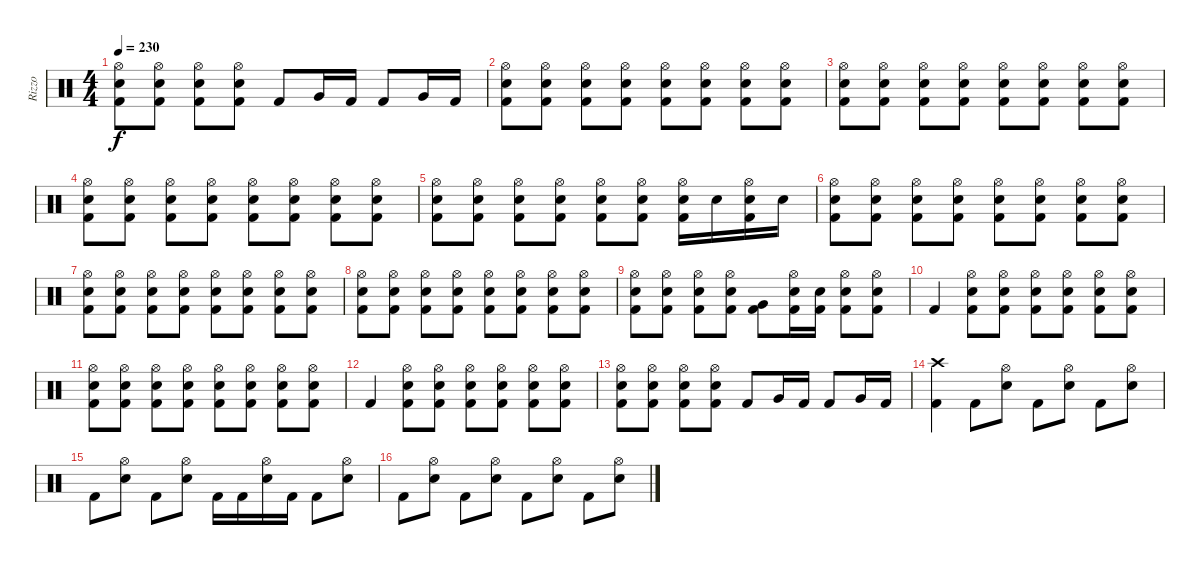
\track ("Rizzo" "Rizzo") {instrument percussion}
\staff {score}
\articulation defaults
\ts (4 4)
\tempo 230
\clef neutral
\ks c
("Hi-Hat (open)" "Snare (hit) 2" "Kick (hit) 2").8{dy f} ("Hi-Hat (open)" "Snare (hit) 2" "Kick (hit) 2").8 ("Hi-Hat (open)" "Snare (hit) 2" "Kick (hit) 2").8 ("Hi-Hat (open)" "Snare (hit) 2" "Kick (hit) 2").8 "Kick (hit) 2".8 "Very Low Tom (hit)".16 "Kick (hit) 2".16 "Kick (hit) 2".8 "Very Low Tom (hit)".16 "Kick (hit) 2".16 |
("Hi-Hat (open)" "Snare (hit) 2" "Kick (hit) 2").8 ("Hi-Hat (open)" "Snare (hit) 2" "Kick (hit) 2").8 ("Hi-Hat (open)" "Snare (hit) 2" "Kick (hit) 2").8 ("Hi-Hat (open)" "Snare (hit) 2" "Kick (hit) 2").8 ("Hi-Hat (open)" "Snare (hit) 2" "Kick (hit) 2").8 ("Hi-Hat (open)" "Snare (hit) 2" "Kick (hit) 2").8 ("Hi-Hat (open)" "Snare (hit) 2" "Kick (hit) 2").8 ("Hi-Hat (open)" "Snare (hit) 2" "Kick (hit) 2").8 |
("Hi-Hat (open)" "Snare (hit) 2" "Kick (hit) 2").8 ("Hi-Hat (open)" "Snare (hit) 2" "Kick (hit) 2").8 ("Hi-Hat (open)" "Snare (hit) 2" "Kick (hit) 2").8 ("Hi-Hat (open)" "Snare (hit) 2" "Kick (hit) 2").8 ("Hi-Hat (open)" "Snare (hit) 2" "Kick (hit) 2").8 ("Hi-Hat (open)" "Snare (hit) 2" "Kick (hit) 2").8 ("Hi-Hat (open)" "Snare (hit) 2" "Kick (hit) 2").8 ("Hi-Hat (open)" "Snare (hit) 2" "Kick (hit) 2").8 |
("Hi-Hat (open)" "Snare (hit) 2" "Kick (hit) 2").8 ("Hi-Hat (open)" "Snare (hit) 2" "Kick (hit) 2").8 ("Hi-Hat (open)" "Snare (hit) 2" "Kick (hit) 2").8 ("Hi-Hat (open)" "Snare (hit) 2" "Kick (hit) 2").8 ("Hi-Hat (open)" "Snare (hit) 2" "Kick (hit) 2").8 ("Hi-Hat (open)" "Snare (hit) 2" "Kick (hit) 2").8 ("Hi-Hat (open)" "Snare (hit) 2" "Kick (hit) 2").8 ("Hi-Hat (open)" "Snare (hit) 2" "Kick (hit) 2").8 |
("Hi-Hat (open)" "Snare (hit) 2" "Kick (hit) 2").8 ("Hi-Hat (open)" "Snare (hit) 2" "Kick (hit) 2").8 ("Hi-Hat (open)" "Snare (hit) 2" "Kick (hit) 2").8 ("Hi-Hat (open)" "Snare (hit) 2" "Kick (hit) 2").8 ("Hi-Hat (open)" "Snare (hit) 2" "Kick (hit) 2").8 ("Hi-Hat (open)" "Snare (hit) 2" "Kick (hit) 2").8 ("Hi-Hat (open)" "Snare (hit) 2" "Kick (hit) 2").16 "Snare (hit) 2".16 ("Hi-Hat (open)" "Snare (hit) 2" "Kick (hit) 2").16 "Snare (hit) 2".16 |
("Hi-Hat (open)" "Snare (hit) 2" "Kick (hit) 2").8 ("Hi-Hat (open)" "Snare (hit) 2" "Kick (hit) 2").8 ("Hi-Hat (open)" "Snare (hit) 2" "Kick (hit) 2").8 ("Hi-Hat (open)" "Snare (hit) 2" "Kick (hit) 2").8 ("Hi-Hat (open)" "Snare (hit) 2" "Kick (hit) 2").8 ("Hi-Hat (open)" "Snare (hit) 2" "Kick (hit) 2").8 ("Hi-Hat (open)" "Snare (hit) 2" "Kick (hit) 2").8 ("Hi-Hat (open)" "Snare (hit) 2" "Kick (hit) 2").8 |
("Hi-Hat (open)" "Snare (hit) 2" "Kick (hit) 2").8 ("Hi-Hat (open)" "Snare (hit) 2" "Kick (hit) 2").8 ("Hi-Hat (open)" "Snare (hit) 2" "Kick (hit) 2").8 ("Hi-Hat (open)" "Snare (hit) 2" "Kick (hit) 2").8 ("Hi-Hat (open)" "Snare (hit) 2" "Kick (hit) 2").8 ("Hi-Hat (open)" "Snare (hit) 2" "Kick (hit) 2").8 ("Hi-Hat (open)" "Snare (hit) 2" "Kick (hit) 2").8 ("Hi-Hat (open)" "Snare (hit) 2" "Kick (hit) 2").8 |
("Hi-Hat (open)" "Snare (hit) 2" "Kick (hit) 2").8 ("Hi-Hat (open)" "Snare (hit) 2" "Kick (hit) 2").8 ("Hi-Hat (open)" "Snare (hit) 2" "Kick (hit) 2").8 ("Hi-Hat (open)" "Snare (hit) 2" "Kick (hit) 2").8 ("Hi-Hat (open)" "Snare (hit) 2" "Kick (hit) 2").8 ("Hi-Hat (open)" "Snare (hit) 2" "Kick (hit) 2").8 ("Hi-Hat (open)" "Snare (hit) 2" "Kick (hit) 2").8 ("Hi-Hat (open)" "Snare (hit) 2" "Kick (hit) 2").8 |
("Hi-Hat (open)" "Snare (hit) 2" "Kick (hit) 2").8 ("Hi-Hat (open)" "Snare (hit) 2" "Kick (hit) 2").8 ("Hi-Hat (open)" "Snare (hit) 2" "Kick (hit) 2").8 ("Hi-Hat (open)" "Snare (hit) 2" "Kick (hit) 2").8 ("Very Low Tom (hit)" "Kick (hit) 2").8 ("Hi-Hat (open)" "Snare (hit) 2" "Kick (hit) 2").16 ("Snare (hit) 2" "Kick (hit) 2").16 ("Hi-Hat (open)" "Snare (hit) 2" "Kick (hit) 2").8 ("Hi-Hat (open)" "Snare (hit) 2" "Kick (hit) 2").8 |
"Kick (hit) 2".4 ("Hi-Hat (open)" "Snare (hit) 2" "Kick (hit) 2").8 ("Hi-Hat (open)" "Snare (hit) 2" "Kick (hit) 2").8 ("Hi-Hat (open)" "Snare (hit) 2" "Kick (hit) 2").8 ("Hi-Hat (open)" "Snare (hit) 2" "Kick (hit) 2").8 ("Hi-Hat (open)" "Snare (hit) 2" "Kick (hit) 2").8 ("Hi-Hat (open)" "Snare (hit) 2" "Kick (hit) 2").8 |
("Hi-Hat (open)" "Snare (hit) 2" "Kick (hit) 2").8 ("Hi-Hat (open)" "Snare (hit) 2" "Kick (hit) 2").8 ("Hi-Hat (open)" "Snare (hit) 2" "Kick (hit) 2").8 ("Hi-Hat (open)" "Snare (hit) 2" "Kick (hit) 2").8 ("Hi-Hat (open)" "Snare (hit) 2" "Kick (hit) 2").8 ("Hi-Hat (open)" "Snare (hit) 2" "Kick (hit) 2").8 ("Hi-Hat (open)" "Snare (hit) 2" "Kick (hit) 2").8 ("Hi-Hat (open)" "Snare (hit) 2" "Kick (hit) 2").8 |
"Kick (hit) 2".4 ("Hi-Hat (open)" "Snare (hit) 2" "Kick (hit) 2").8 ("Hi-Hat (open)" "Snare (hit) 2" "Kick (hit) 2").8 ("Hi-Hat (open)" "Snare (hit) 2" "Kick (hit) 2").8 ("Hi-Hat (open)" "Snare (hit) 2" "Kick (hit) 2").8 ("Hi-Hat (open)" "Snare (hit) 2" "Kick (hit) 2").8 ("Hi-Hat (open)" "Snare (hit) 2" "Kick (hit) 2").8 |
("Hi-Hat (open)" "Snare (hit) 2" "Kick (hit) 2").8 ("Hi-Hat (open)" "Snare (hit) 2" "Kick (hit) 2").8 ("Hi-Hat (open)" "Snare (hit) 2" "Kick (hit) 2").8 ("Hi-Hat (open)" "Snare (hit) 2" "Kick (hit) 2").8 "Kick (hit) 2".8 "Very Low Tom (hit)".16 "Kick (hit) 2".16 "Kick (hit) 2".8 "Very Low Tom (hit)".16 "Kick (hit) 2".16 |
("Crash high (hit)" "Kick (hit) 2").4 "Kick (hit) 2".8 ("Hi-Hat (open)" "Snare (hit) 2").8 "Kick (hit) 2".8 ("Hi-Hat (open)" "Snare (hit) 2").8 "Kick (hit) 2".8 ("Hi-Hat (open)" "Snare (hit) 2").8 |
"Kick (hit) 2".8 ("Hi-Hat (open)" "Snare (hit) 2").8 "Kick (hit) 2".8 ("Hi-Hat (open)" "Snare (hit) 2").8 "Kick (hit) 2".16 "Kick (hit) 2".16 ("Hi-Hat (open)" "Snare (hit) 2").16 "Kick (hit) 2".16 "Kick (hit) 2".8 ("Hi-Hat (open)" "Snare (hit) 2").8 |
"Kick (hit) 2".8 ("Hi-Hat (open)" "Snare (hit) 2").8 "Kick (hit) 2".8 ("Hi-Hat (open)" "Snare (hit) 2").8 "Kick (hit) 2".8 ("Hi-Hat (open)" "Snare (hit) 2").8 "Kick (hit) 2".8 ("Hi-Hat (open)" "Snare (hit) 2").8
